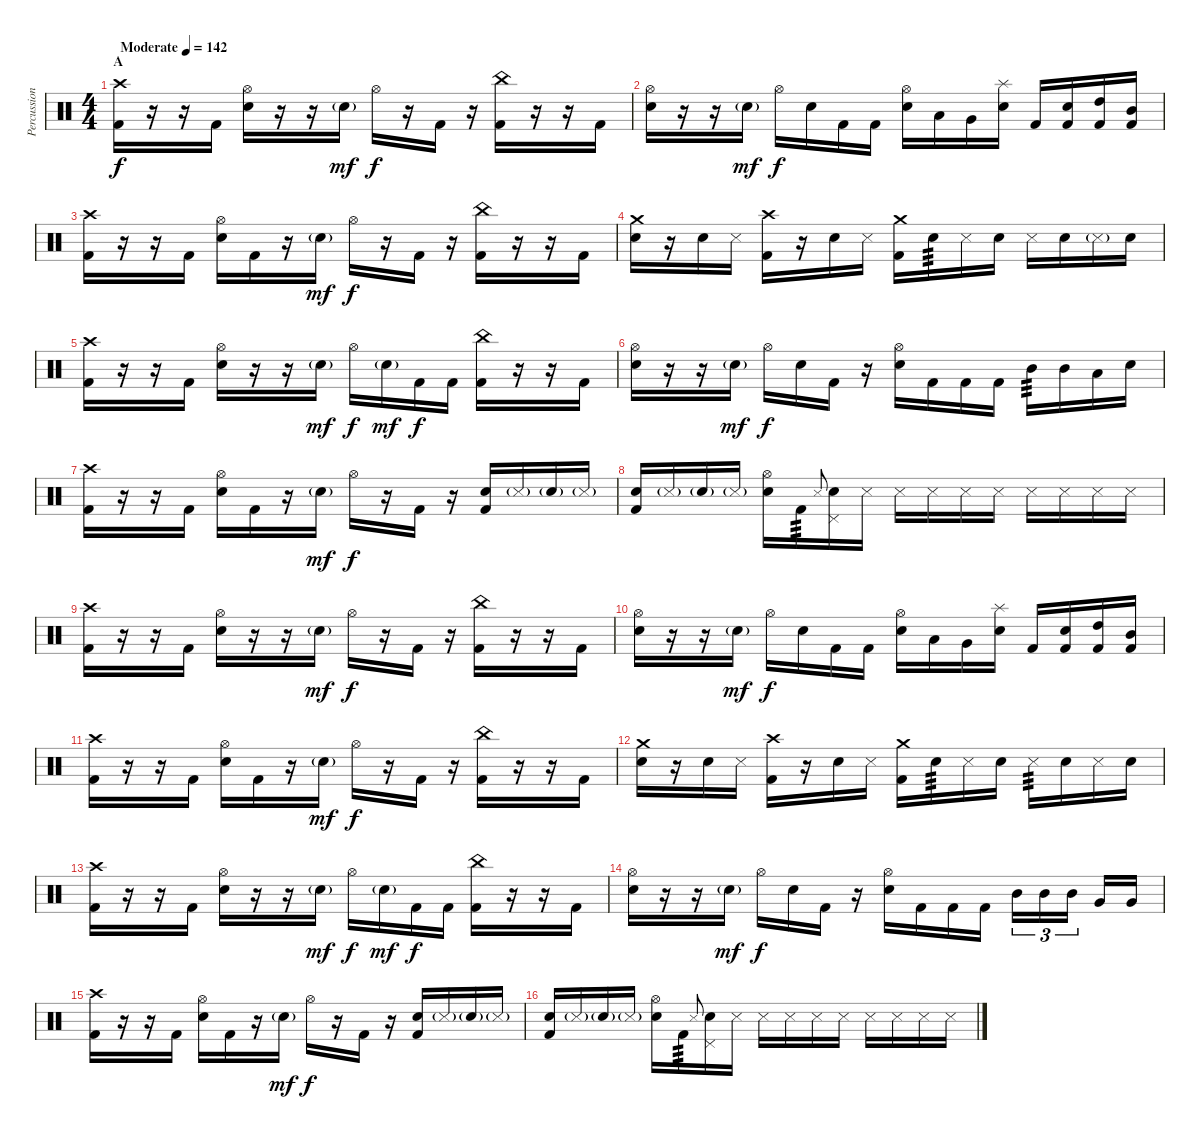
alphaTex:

\track ("Percussion" "Percussion") {instrument percussion}
\staff {score}
\articulation defaults
\ts (4 4)
\section ("" "A")
\tempo (142 "Moderate")
\clef neutral
\ks c
("Crash high (hit)" "Kick (hit) 2").16{dy f} r.16 r.16 "Kick (hit) 2".16 ("Hi-Hat (open)" "Snare (hit) 2").16 r.16 r.16 "Snare (hit) 2"{g}.16{dy mf} "Hi-Hat (open)".16{dy f} r.16 "Kick (hit) 2".16 r.16 ("China (hit)" "Kick (hit) 2").16 r.16 r.16 "Kick (hit) 2".16 |
("Hi-Hat (open)" "Snare (hit) 2").16 r.16 r.16 "Snare (hit) 2"{g}.16{dy mf} "Hi-Hat (open)".16{dy f} "Snare (hit) 2".16 "Kick (hit) 2".16 "Kick (hit) 2".16 ("Hi-Hat (open)" "Snare (hit) 2").16 "Low Tom (hit)".16 "Very Low Tom (hit)".16 ("Splash (hit)" "Snare (hit) 2").16 "Kick (hit) 2".16 ("Snare (hit) 2" "Kick (hit) 2").16 ("High Tom (hit)" "Kick (hit) 2").16 ("Mid Tom (hit)" "Kick (hit) 2").16 |
("Crash high (hit)" "Kick (hit) 2").16 r.16 r.16 "Kick (hit) 2".16 ("Hi-Hat (open)" "Snare (hit) 2").16 "Kick (hit) 2".16 r.16 "Snare (hit) 2"{g}.16{dy mf} "Hi-Hat (open)".16{dy f} r.16 "Kick (hit) 2".16 r.16 ("China (hit)" "Kick (hit) 2").16 r.16 r.16 "Kick (hit) 2".16 |
("Crash medium (hit)" "Snare (hit) 2").16 r.16 "Snare (hit) 2".16 "Metronome (hit)".16 ("Crash high (hit)" "Kick (hit) 2").16 r.16 "Snare (hit) 2".16 "Metronome (hit)".16 ("Crash medium (hit)" "Kick (hit) 2").16 "Snare (hit) 2".16{tp 3} "Metronome (hit)".16 "Snare (hit) 2".16 "Metronome (hit)".16 "Snare (hit) 2".16 "Metronome (hit)"{g}.16 "Snare (hit) 2".16 |
("Crash high (hit)" "Kick (hit) 2").16 r.16 r.16 "Kick (hit) 2".16 ("Hi-Hat (open)" "Snare (hit) 2").16 r.16 r.16 "Snare (hit) 2"{g}.16{dy mf} "Hi-Hat (open)".16{dy f} "Snare (hit) 2"{g}.16{dy mf} "Kick (hit) 2".16{dy f} "Kick (hit) 2".16 ("China (hit)" "Kick (hit) 2").16 r.16 r.16 "Kick (hit) 2".16 |
("Hi-Hat (open)" "Snare (hit) 2").16 r.16 r.16 "Snare (hit) 2"{g}.16{dy mf} "Hi-Hat (open)".16{dy f} "Snare (hit) 2".16 "Kick (hit) 2".16 r.16 ("Hi-Hat (open)" "Snare (hit) 2").16 "Kick (hit) 2".16 "Kick (hit) 2".16 "Kick (hit) 2".16 "Mid Tom (hit)".16{tp 3} "Mid Tom (hit)".16 "Low Tom (hit)".16 "Snare (hit) 2".16 |
("Crash high (hit)" "Kick (hit) 2").16 r.16 r.16 "Kick (hit) 2".16 ("Hi-Hat (open)" "Snare (hit) 2").16 "Kick (hit) 2".16 r.16 "Snare (hit) 2"{g}.16{dy mf} "Hi-Hat (open)".16{dy f} r.16 "Kick (hit) 2".16 r.16 ("Snare (hit) 2" "Kick (hit) 2").16 "Metronome (hit)"{g}.16 "Snare (hit) 2"{g}.16 "Metronome (hit)"{g}.16 |
("Snare (hit) 2" "Kick (hit) 2").16 "Metronome (hit)"{g}.16 "Snare (hit) 2"{g}.16 "Metronome (hit)"{g}.16 ("Hi-Hat (open)" "Snare (hit) 2").16 "Kick (hit) 2".16{tp 3} "Metronome (hit)".8{gr onbeat} ("Pedal Hi-Hat (hit)" "Snare (hit) 2").16 "Snare (side stick) 3".16 "Snare (side stick) 3".16 "Snare (side stick) 3".16 "Snare (side stick) 3".16 "Snare (side stick) 3".16 "Snare (side stick) 3".16 "Snare (side stick) 3".16 "Snare (side stick) 3".16 "Snare (side stick) 3".16 |
("Crash high (hit)" "Kick (hit) 2").16 r.16 r.16 "Kick (hit) 2".16 ("Hi-Hat (open)" "Snare (hit) 2").16 r.16 r.16 "Snare (hit) 2"{g}.16{dy mf} "Hi-Hat (open)".16{dy f} r.16 "Kick (hit) 2".16 r.16 ("China (hit)" "Kick (hit) 2").16 r.16 r.16 "Kick (hit) 2".16 |
("Hi-Hat (open)" "Snare (hit) 2").16 r.16 r.16 "Snare (hit) 2"{g}.16{dy mf} "Hi-Hat (open)".16{dy f} "Snare (hit) 2".16 "Kick (hit) 2".16 "Kick (hit) 2".16 ("Hi-Hat (open)" "Snare (hit) 2").16 "Low Tom (hit)".16 "Very Low Tom (hit)".16 ("Splash (hit)" "Snare (hit) 2").16 "Kick (hit) 2".16 ("Snare (hit) 2" "Kick (hit) 2").16 ("High Tom (hit)" "Kick (hit) 2").16 ("Mid Tom (hit)" "Kick (hit) 2").16 |
("Crash high (hit)" "Kick (hit) 2").16 r.16 r.16 "Kick (hit) 2".16 ("Hi-Hat (open)" "Snare (hit) 2").16 "Kick (hit) 2".16 r.16 "Snare (hit) 2"{g}.16{dy mf} "Hi-Hat (open)".16{dy f} r.16 "Kick (hit) 2".16 r.16 ("China (hit)" "Kick (hit) 2").16 r.16 r.16 "Kick (hit) 2".16 |
("Crash medium (hit)" "Snare (hit) 2").16 r.16 "Snare (hit) 2".16 "Metronome (hit)".16 ("Crash high (hit)" "Kick (hit) 2").16 r.16 "Snare (hit) 2".16 "Metronome (hit)".16 ("Crash medium (hit)" "Kick (hit) 2").16 "Snare (hit) 2".16{tp 3} "Metronome (hit)".16 "Snare (hit) 2".16 "Metronome (hit)".16{tp 3} "Snare (hit) 2".16 "Metronome (hit)".16 "Snare (hit) 2".16 |
("Crash high (hit)" "Kick (hit) 2").16 r.16 r.16 "Kick (hit) 2".16 ("Hi-Hat (open)" "Snare (hit) 2").16 r.16 r.16 "Snare (hit) 2"{g}.16{dy mf} "Hi-Hat (open)".16{dy f} "Snare (hit) 2"{g}.16{dy mf} "Kick (hit) 2".16{dy f} "Kick (hit) 2".16 ("China (hit)" "Kick (hit) 2").16 r.16 r.16 "Kick (hit) 2".16 |
("Hi-Hat (open)" "Snare (hit) 2").16 r.16 r.16 "Snare (hit) 2"{g}.16{dy mf} "Hi-Hat (open)".16{dy f} "Snare (hit) 2".16 "Kick (hit) 2".16 r.16 ("Hi-Hat (open)" "Snare (hit) 2").16 "Kick (hit) 2".16 "Kick (hit) 2".16 "Kick (hit) 2".16 "Mid Tom (hit)".16{tu (3 2)} "Mid Tom (hit)".16{tu (3 2)} "Mid Tom (hit)".16{tu (3 2) beam splitsecondary} "Very Low Tom (hit)".16 "Very Low Tom (hit)".16 |
("Crash high (hit)" "Kick (hit) 2").16 r.16 r.16 "Kick (hit) 2".16 ("Hi-Hat (open)" "Snare (hit) 2").16 "Kick (hit) 2".16 r.16 "Snare (hit) 2"{g}.16{dy mf} "Hi-Hat (open)".16{dy f} r.16 "Kick (hit) 2".16 r.16 ("Snare (hit) 2" "Kick (hit) 2").16 "Metronome (hit)"{g}.16 "Snare (hit) 2"{g}.16 "Metronome (hit)"{g}.16 |
("Snare (hit) 2" "Kick (hit) 2").16 "Metronome (hit)"{g}.16 "Snare (hit) 2"{g}.16 "Metronome (hit)"{g}.16 ("Hi-Hat (open)" "Snare (hit) 2").16 "Kick (hit) 2".16{tp 3} "Metronome (hit)".8{gr onbeat} ("Pedal Hi-Hat (hit)" "Snare (hit) 2").16 "Snare (side stick) 3".16 "Snare (side stick) 3".16 "Snare (side stick) 3".16 "Snare (side stick) 3".16 "Snare (side stick) 3".16 "Snare (side stick) 3".16 "Snare (side stick) 3".16 "Snare (side stick) 3".16 "Snare (side stick) 3".16
